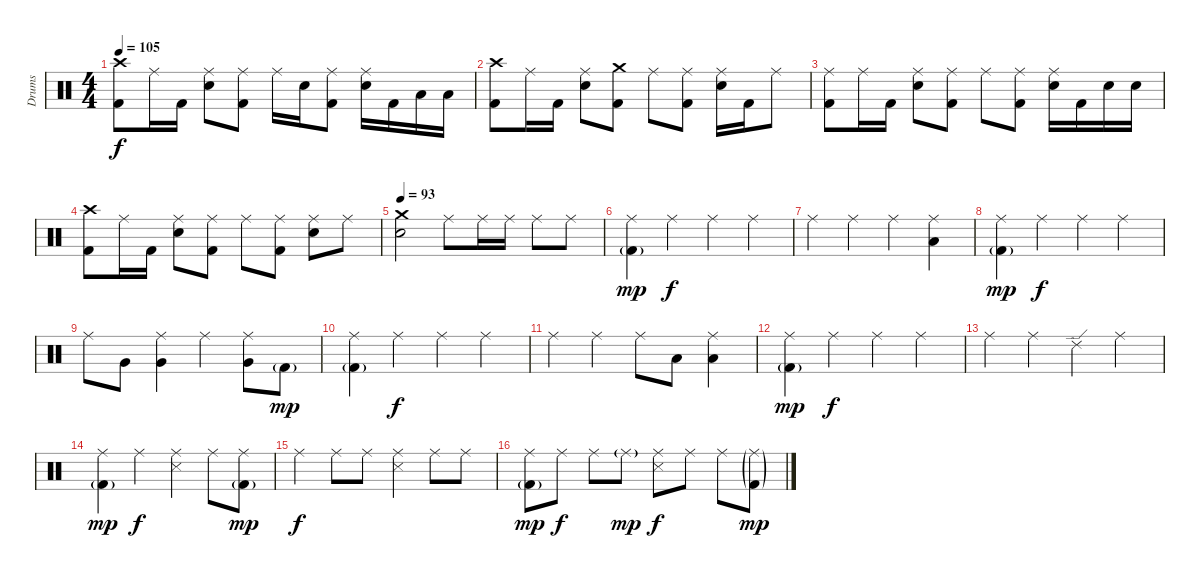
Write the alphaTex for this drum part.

\track ("Drums" "Drums") {instrument percussion}
\staff {score}
\articulation defaults
\ts (4 4)
\tempo 105
\clef neutral
\ks c
("Crash high (hit)" "Kick (hit) 2").8{dy f} "Ride (middle)".16 "Kick (hit) 2".16 ("Ride (middle)" "Electric Snare (hit)").8 ("Ride (middle)" "Kick (hit) 2").8 "Ride (middle)".16 "Electric Snare (hit)".16 ("Ride (middle)" "Kick (hit) 2").8 ("Ride (middle)" "Electric Snare (hit)").16 "Kick (hit) 2".16 "Low Tom (hit)".16 "Low Tom (hit)".16 |
("Crash high (hit)" "Kick (hit) 2").8 "Ride (middle)".16 "Kick (hit) 2".16 ("Ride (middle)" "Electric Snare (hit)").8 ("Crash medium (hit)" "Kick (hit) 2").8 "Ride (middle)".8 ("Ride (middle)" "Kick (hit) 2").8 ("Ride (middle)" "Electric Snare (hit)").16 "Kick (hit) 2".16 "Ride (middle)".8 |
("Ride (middle)" "Kick (hit) 2").8 "Ride (middle)".16 "Kick (hit) 2".16 ("Ride (middle)" "Electric Snare (hit)").8 ("Ride (middle)" "Kick (hit) 2").8 "Ride (middle)".8 ("Ride (middle)" "Kick (hit) 2").8 ("Ride (middle)" "Electric Snare (hit)").16 "Kick (hit) 2".16 "Electric Snare (hit)".16 "Electric Snare (hit)".16 |
("Crash high (hit)" "Kick (hit) 2").8 "Ride (middle)".16 "Kick (hit) 2".16 ("Ride (middle)" "Electric Snare (hit)").8 ("Ride (middle)" "Kick (hit) 2").8 "Ride (middle)".8 ("Ride (middle)" "Kick (hit) 2").8 ("Ride (middle)" "Electric Snare (hit)").8 "Ride (middle)".8 |
\tempo 93
("Crash medium (hit)" "Electric Snare (hit)").2 "Ride (middle)".8 "Ride (middle)".16 "Ride (middle)".16 "Ride (middle)".8 "Ride (middle)".8 |
("Ride (middle)" "Kick (hit) 2"{g}).4{dy mp} "Ride (middle)".4{dy f} "Ride (middle)".4 "Ride (middle)".4 |
"Ride (middle)".4 "Ride (middle)".4 "Ride (middle)".4 ("Ride (middle)" "Low Floor Tom (hit)").4 |
("Ride (middle)" "Kick (hit) 2"{g}).4{dy mp} "Ride (middle)".4{dy f} "Ride (middle)".4 "Ride (middle)".4 |
"Ride (middle)".8 "Very Low Tom (hit)".8 ("Ride (middle)" "Very Low Tom (hit)").4 "Ride (middle)".4 ("Ride (middle)" "Very Low Tom (hit)").8 "Kick (hit) 2"{g}.8{dy mp} |
("Ride (middle)" "Kick (hit) 2"{g}).4 "Ride (middle)".4{dy f} "Ride (middle)".4 "Ride (middle)".4 |
"Ride (middle)".4 "Ride (middle)".4 "Ride (middle)".8 "Low Floor Tom (hit)".8 ("Ride (middle)" "Low Floor Tom (hit)").4 |
("Ride (middle)" "Kick (hit) 2"{g}).4{dy mp} "Ride (middle)".4{dy f} "Ride (middle)".4 "Ride (middle)".4 |
"Ride (middle)".4 "Ride (middle)".4 "Ride (edge) 2".4 "Ride (middle)".4 |
("Ride (middle)" "Kick (hit) 2"{g}).4{dy mp} "Ride (middle)".4{dy f} ("Ride (middle)" "Snare (side stick) 3").4 "Ride (middle)".8 ("Ride (middle)" "Kick (hit) 2"{g}).8{dy mp} |
"Ride (middle)".4{dy f} "Ride (middle)".8 "Ride (middle)".8 ("Ride (middle)" "Snare (side stick) 3").4 "Ride (middle)".8 "Ride (middle)".8 |
("Ride (middle)" "Kick (hit) 2"{g}).8{dy mp} "Ride (middle)".8{dy f} "Ride (middle)".8 "Ride (middle)"{g}.8{dy mp} ("Ride (middle)" "Snare (side stick) 3").8{dy f} "Ride (middle)".8 "Ride (middle)".8 ("Ride (middle)"{g} "Kick (hit) 2"{g}).8{dy mp}
